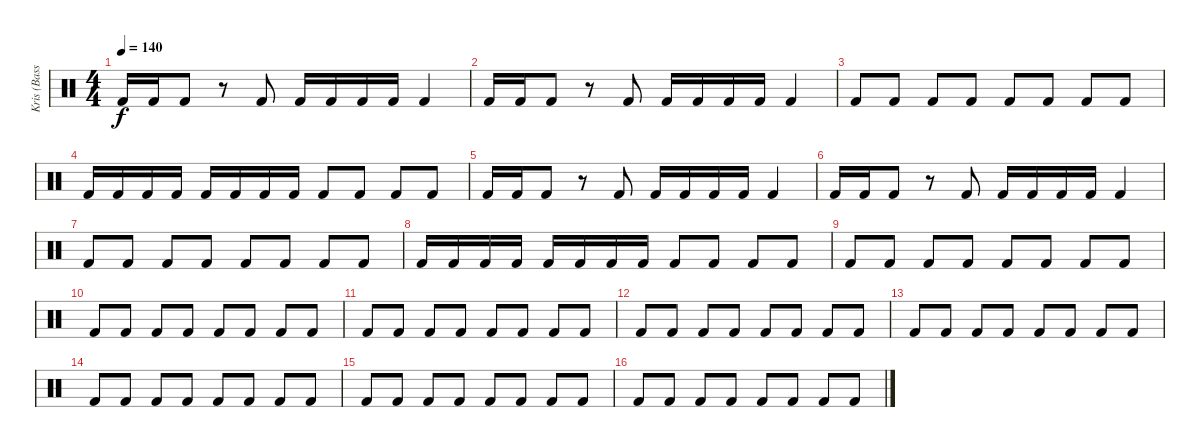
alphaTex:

\track ("Kris (Bass Drums)" "Kris (Bass") {instrument percussion}
\staff {score}
\articulation defaults
\ts (4 4)
\tempo 140
\clef neutral
\ks c "Kick (hit) 2".16{dy f} "Kick (hit) 2".16 "Kick (hit) 2".8
r.8 "Kick (hit) 2".8 "Kick (hit) 2".16 "Kick (hit) 2".16 "Kick (hit) 2".16 "Kick (hit) 2".16 "Kick (hit) 2".4 |
"Kick (hit) 2".16 "Kick (hit) 2".16 "Kick (hit) 2".8 r.8 "Kick (hit) 2".8 "Kick (hit) 2".16 "Kick (hit) 2".16 "Kick (hit) 2".16 "Kick (hit) 2".16 "Kick (hit) 2".4 |
"Kick (hit) 2".8 "Kick (hit) 2".8 "Kick (hit) 2".8 "Kick (hit) 2".8 "Kick (hit) 2".8 "Kick (hit) 2".8 "Kick (hit) 2".8 "Kick (hit) 2".8 |
"Kick (hit) 2".16 "Kick (hit) 2".16 "Kick (hit) 2".16 "Kick (hit) 2".16 "Kick (hit) 2".16 "Kick (hit) 2".16 "Kick (hit) 2".16 "Kick (hit) 2".16 "Kick (hit) 2".8 "Kick (hit) 2".8 "Kick (hit) 2".8 "Kick (hit) 2".8 |
"Kick (hit) 2".16 "Kick (hit) 2".16 "Kick (hit) 2".8 r.8 "Kick (hit) 2".8 "Kick (hit) 2".16 "Kick (hit) 2".16 "Kick (hit) 2".16 "Kick (hit) 2".16 "Kick (hit) 2".4 |
"Kick (hit) 2".16 "Kick (hit) 2".16 "Kick (hit) 2".8 r.8 "Kick (hit) 2".8 "Kick (hit) 2".16 "Kick (hit) 2".16 "Kick (hit) 2".16 "Kick (hit) 2".16 "Kick (hit) 2".4 |
"Kick (hit) 2".8 "Kick (hit) 2".8 "Kick (hit) 2".8 "Kick (hit) 2".8 "Kick (hit) 2".8 "Kick (hit) 2".8 "Kick (hit) 2".8 "Kick (hit) 2".8 |
"Kick (hit) 2".16 "Kick (hit) 2".16 "Kick (hit) 2".16 "Kick (hit) 2".16 "Kick (hit) 2".16 "Kick (hit) 2".16 "Kick (hit) 2".16 "Kick (hit) 2".16 "Kick (hit) 2".8 "Kick (hit) 2".8 "Kick (hit) 2".8 "Kick (hit) 2".8 |
"Kick (hit) 2".8 "Kick (hit) 2".8 "Kick (hit) 2".8 "Kick (hit) 2".8 "Kick (hit) 2".8 "Kick (hit) 2".8 "Kick (hit) 2".8 "Kick (hit) 2".8 |
"Kick (hit) 2".8 "Kick (hit) 2".8 "Kick (hit) 2".8 "Kick (hit) 2".8 "Kick (hit) 2".8 "Kick (hit) 2".8 "Kick (hit) 2".8 "Kick (hit) 2".8 |
"Kick (hit) 2".8 "Kick (hit) 2".8 "Kick (hit) 2".8 "Kick (hit) 2".8 "Kick (hit) 2".8 "Kick (hit) 2".8 "Kick (hit) 2".8 "Kick (hit) 2".8 |
"Kick (hit) 2".8 "Kick (hit) 2".8 "Kick (hit) 2".8 "Kick (hit) 2".8 "Kick (hit) 2".8 "Kick (hit) 2".8 "Kick (hit) 2".8 "Kick (hit) 2".8 |
"Kick (hit) 2".8 "Kick (hit) 2".8 "Kick (hit) 2".8 "Kick (hit) 2".8 "Kick (hit) 2".8 "Kick (hit) 2".8 "Kick (hit) 2".8 "Kick (hit) 2".8 |
"Kick (hit) 2".8 "Kick (hit) 2".8 "Kick (hit) 2".8 "Kick (hit) 2".8 "Kick (hit) 2".8 "Kick (hit) 2".8 "Kick (hit) 2".8 "Kick (hit) 2".8 |
"Kick (hit) 2".8 "Kick (hit) 2".8 "Kick (hit) 2".8 "Kick (hit) 2".8 "Kick (hit) 2".8 "Kick (hit) 2".8 "Kick (hit) 2".8 "Kick (hit) 2".8 |
"Kick (hit) 2".8 "Kick (hit) 2".8 "Kick (hit) 2".8 "Kick (hit) 2".8 "Kick (hit) 2".8 "Kick (hit) 2".8 "Kick (hit) 2".8 "Kick (hit) 2".8
